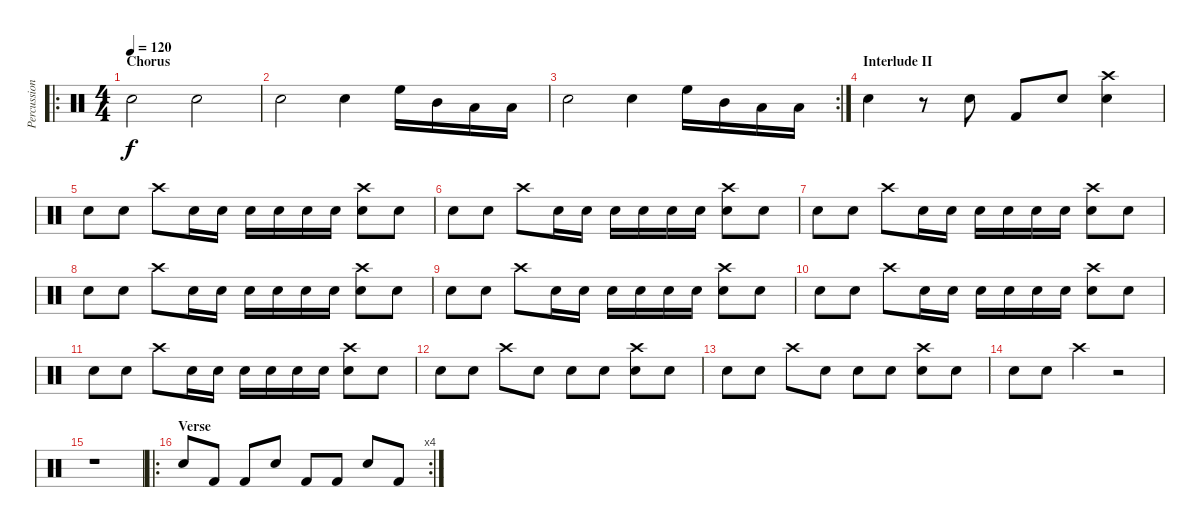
\track ("Percussion" "Percussion") {instrument percussion}
\staff {score}
\articulation defaults
\ro
\ts (4 4)
\section ("" "Chorus")
\tempo 120
\clef neutral
\ks c "Snare (hit) 2".2{dy f} "Snare (hit) 2".2
|
"Snare (hit) 2".2 "Snare (hit) 2".4 "High Floor Tom (hit)".16 "Mid Tom (hit)".16 "Low Tom (hit)".16 "Low Floor Tom (hit)".16 |
\rc 2 "Snare (hit) 2".2 "Snare (hit) 2".4 "High Floor Tom (hit)".16 "Mid Tom (hit)".16 "Low Tom (hit)".16 "Low Floor Tom (hit)".16
|
\section ("" "Interlude II")
"Snare (hit) 2".4 r.8 "Snare (hit) 2".8 "Kick (hit) 2".8 "Snare (hit) 2".8 ("Crash high (hit)" "Snare (hit) 2").4 |
"Snare (hit) 2".8 "Snare (hit) 2".8 "Crash high (hit)".8 "Snare (hit) 2".16 "Snare (hit) 2".16 "Snare (hit) 2".16 "Snare (hit) 2".16 "Snare (hit) 2".16 "Snare (hit) 2".16 ("Crash high (hit)" "Snare (hit) 2").8 "Snare (hit) 2".8 |
"Snare (hit) 2".8 "Snare (hit) 2".8 "Crash high (hit)".8 "Snare (hit) 2".16 "Snare (hit) 2".16 "Snare (hit) 2".16 "Snare (hit) 2".16 "Snare (hit) 2".16 "Snare (hit) 2".16 ("Crash high (hit)" "Snare (hit) 2").8 "Snare (hit) 2".8 |
"Snare (hit) 2".8 "Snare (hit) 2".8 "Crash high (hit)".8 "Snare (hit) 2".16 "Snare (hit) 2".16 "Snare (hit) 2".16 "Snare (hit) 2".16 "Snare (hit) 2".16 "Snare (hit) 2".16 ("Crash high (hit)" "Snare (hit) 2").8 "Snare (hit) 2".8 |
"Snare (hit) 2".8 "Snare (hit) 2".8 "Crash high (hit)".8 "Snare (hit) 2".16 "Snare (hit) 2".16 "Snare (hit) 2".16 "Snare (hit) 2".16 "Snare (hit) 2".16 "Snare (hit) 2".16 ("Crash high (hit)" "Snare (hit) 2").8 "Snare (hit) 2".8 |
"Snare (hit) 2".8 "Snare (hit) 2".8 "Crash high (hit)".8 "Snare (hit) 2".16 "Snare (hit) 2".16 "Snare (hit) 2".16 "Snare (hit) 2".16 "Snare (hit) 2".16 "Snare (hit) 2".16 ("Crash high (hit)" "Snare (hit) 2").8 "Snare (hit) 2".8 |
"Snare (hit) 2".8 "Snare (hit) 2".8 "Crash high (hit)".8 "Snare (hit) 2".16 "Snare (hit) 2".16 "Snare (hit) 2".16 "Snare (hit) 2".16 "Snare (hit) 2".16 "Snare (hit) 2".16 ("Crash high (hit)" "Snare (hit) 2").8 "Snare (hit) 2".8 |
"Snare (hit) 2".8 "Snare (hit) 2".8 "Crash high (hit)".8 "Snare (hit) 2".16 "Snare (hit) 2".16 "Snare (hit) 2".16 "Snare (hit) 2".16 "Snare (hit) 2".16 "Snare (hit) 2".16 ("Crash high (hit)" "Snare (hit) 2").8 "Snare (hit) 2".8 |
"Snare (hit) 2".8 "Snare (hit) 2".8 "Crash high (hit)".8 "Snare (hit) 2".8 "Snare (hit) 2".8 "Snare (hit) 2".8 ("Crash high (hit)" "Snare (hit) 2").8 "Snare (hit) 2".8 |
"Snare (hit) 2".8 "Snare (hit) 2".8 "Crash high (hit)".8 "Snare (hit) 2".8 "Snare (hit) 2".8 "Snare (hit) 2".8 ("Crash high (hit)" "Snare (hit) 2").8 "Snare (hit) 2".8 |
"Snare (hit) 2".8 "Snare (hit) 2".8 "Crash high (hit)".4 r.2 |
r.1 |
\ro
\rc 4
\section ("" "Verse")
"Snare (hit) 2".8 "Kick (hit) 2".8 "Kick (hit) 2".8 "Snare (hit) 2".8 "Kick (hit) 2".8 "Kick (hit) 2".8 "Snare (hit) 2".8 "Kick (hit) 2".8
